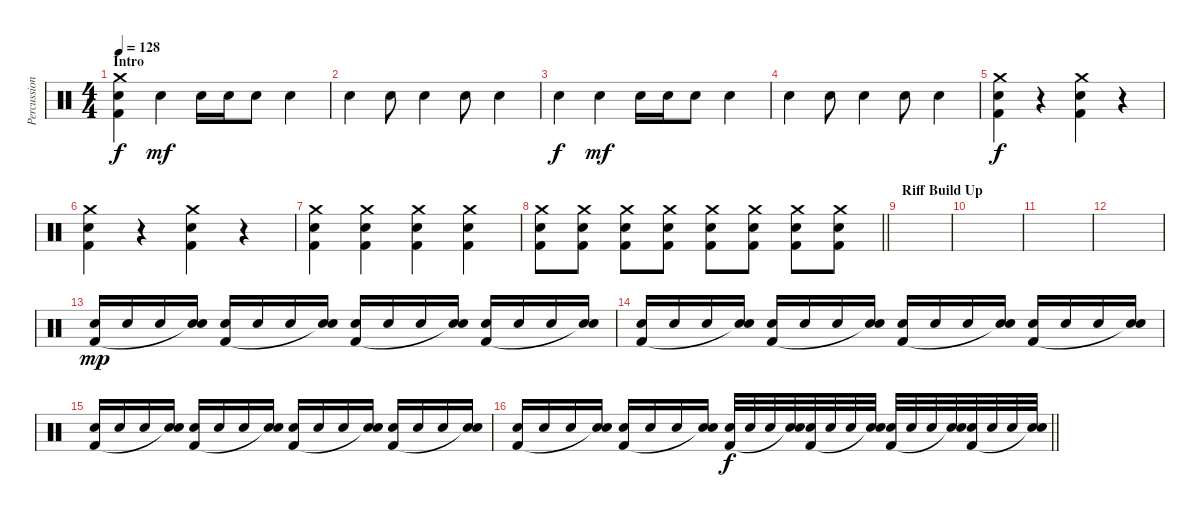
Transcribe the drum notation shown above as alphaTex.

\track ("Percussion" "Percussion") {instrument percussion}
\staff {score}
\articulation defaults
\ts (4 4)
\section ("" "Intro")
\tempo 128
\clef neutral
\ks c
("Kick (hit) 2" "Snare (hit) 2" "Crash medium (hit)").4{dy f} "Hand Clap (hit)".4{dy mf} "Hand Clap (hit)".16 "Hand Clap (hit)".16 "Hand Clap (hit)".8 "Hand Clap (hit)".4 |
"Hand Clap (hit)".4 "Hand Clap (hit)".8 "Hand Clap (hit)".4 "Hand Clap (hit)".8 "Hand Clap (hit)".4 |
"Hand Clap (hit)".4{dy f} "Hand Clap (hit)".4{dy mf} "Hand Clap (hit)".16 "Hand Clap (hit)".16 "Hand Clap (hit)".8 "Hand Clap (hit)".4 |
"Hand Clap (hit)".4 "Hand Clap (hit)".8 "Hand Clap (hit)".4 "Hand Clap (hit)".8 "Hand Clap (hit)".4 |
("Kick (hit) 2" "Snare (hit) 2" "Crash medium (hit)").4{dy f} r.4 ("Kick (hit) 2" "Snare (hit) 2" "Crash medium (hit)").4 r.4 |
("Kick (hit) 2" "Snare (hit) 2" "Crash medium (hit)").4 r.4 ("Kick (hit) 2" "Snare (hit) 2" "Crash medium (hit)").4 r.4 |
("Kick (hit) 2" "Snare (hit) 2" "Crash medium (hit)").4 ("Kick (hit) 2" "Snare (hit) 2" "Crash medium (hit)").4 ("Kick (hit) 2" "Snare (hit) 2" "Crash medium (hit)").4 ("Kick (hit) 2" "Snare (hit) 2" "Crash medium (hit)").4 |
\barLineRight lightlight
("Kick (hit) 2" "Snare (hit) 2" "Crash medium (hit)").8 ("Kick (hit) 2" "Snare (hit) 2" "Crash medium (hit)").8 ("Kick (hit) 2" "Snare (hit) 2" "Crash medium (hit)").8 ("Kick (hit) 2" "Snare (hit) 2" "Crash medium (hit)").8 ("Kick (hit) 2" "Snare (hit) 2" "Crash medium (hit)").8 ("Kick (hit) 2" "Snare (hit) 2" "Crash medium (hit)").8 ("Kick (hit) 2" "Snare (hit) 2" "Crash medium (hit)").8 ("Kick (hit) 2" "Snare (hit) 2" "Crash medium (hit)").8 |
\section ("" "Riff Build Up")
|
|
|
|
("Snare (hit) 2" "Kick (hit) 2").16{dy mp} "Snare (hit) 2".16 "Snare (hit) 2".16 ("Snare (hit) 2" "Snare (hit)"{t}).16 ("Snare (hit) 2" "Kick (hit) 2").16 "Snare (hit) 2".16 "Snare (hit) 2".16 ("Snare (hit) 2" "Snare (hit)"{t}).16 ("Snare (hit) 2" "Kick (hit) 2").16 "Snare (hit) 2".16 "Snare (hit) 2".16 ("Snare (hit) 2" "Snare (hit)"{t}).16 ("Snare (hit) 2" "Kick (hit) 2").16 "Snare (hit) 2".16 "Snare (hit) 2".16 ("Snare (hit) 2" "Snare (hit)"{t}).16 |
("Snare (hit) 2" "Kick (hit) 2").16 "Snare (hit) 2".16 "Snare (hit) 2".16 ("Snare (hit) 2" "Snare (hit)"{t}).16 ("Snare (hit) 2" "Kick (hit) 2").16 "Snare (hit) 2".16 "Snare (hit) 2".16 ("Snare (hit) 2" "Snare (hit)"{t}).16 ("Snare (hit) 2" "Kick (hit) 2").16 "Snare (hit) 2".16 "Snare (hit) 2".16 ("Snare (hit) 2" "Snare (hit)"{t}).16 ("Snare (hit) 2" "Kick (hit) 2").16 "Snare (hit) 2".16 "Snare (hit) 2".16 ("Snare (hit) 2" "Snare (hit)"{t}).16 |
("Snare (hit) 2" "Kick (hit) 2").16 "Snare (hit) 2".16 "Snare (hit) 2".16 ("Snare (hit) 2" "Snare (hit)"{t}).16 ("Snare (hit) 2" "Kick (hit) 2").16 "Snare (hit) 2".16 "Snare (hit) 2".16 ("Snare (hit) 2" "Snare (hit)"{t}).16 ("Snare (hit) 2" "Kick (hit) 2").16 "Snare (hit) 2".16 "Snare (hit) 2".16 ("Snare (hit) 2" "Snare (hit)"{t}).16 ("Snare (hit) 2" "Kick (hit) 2").16 "Snare (hit) 2".16 "Snare (hit) 2".16 ("Snare (hit) 2" "Snare (hit)"{t}).16 |
\barLineRight lightlight
("Snare (hit) 2" "Kick (hit) 2").16 "Snare (hit) 2".16 "Snare (hit) 2".16 ("Snare (hit) 2" "Snare (hit)"{t}).16 ("Snare (hit) 2" "Kick (hit) 2").16 "Snare (hit) 2".16 "Snare (hit) 2".16 ("Snare (hit) 2" "Snare (hit)"{t}).16 ("Snare (hit) 2" "Kick (hit) 2").32{dy f} "Snare (hit) 2".32 "Snare (hit) 2".32 ("Snare (hit) 2" "Snare (hit)"{t}).32 ("Snare (hit) 2" "Kick (hit) 2").32 "Snare (hit) 2".32 "Snare (hit) 2".32 ("Snare (hit) 2" "Snare (hit)"{t}).32 ("Snare (hit) 2" "Kick (hit) 2").32 "Snare (hit) 2".32 "Snare (hit) 2".32 ("Snare (hit) 2" "Snare (hit)"{t}).32 ("Snare (hit) 2" "Kick (hit) 2").32 "Snare (hit) 2".32 "Snare (hit) 2".32 ("Snare (hit) 2" "Snare (hit)"{t}).32
